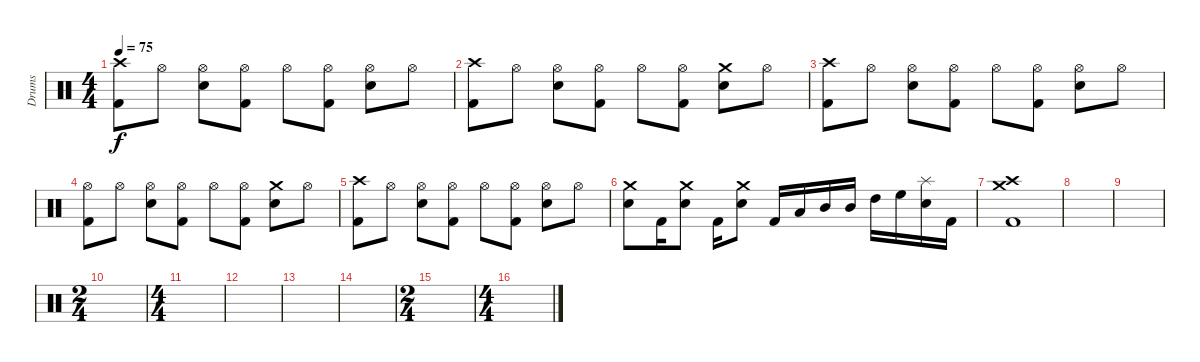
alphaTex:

\track ("Drums" "Drums") {instrument percussion}
\staff {score}
\articulation defaults
\ts (4 4)
\tempo 75
\clef neutral
\ks c
("Crash high (hit)" "Kick (hit) 2").8{dy f} "Hi-Hat (open)".8 ("Hi-Hat (open)" "Electric Snare (hit)").8 ("Hi-Hat (open)" "Kick (hit) 2").8 "Hi-Hat (open)".8 ("Hi-Hat (open)" "Kick (hit) 2").8 ("Hi-Hat (open)" "Electric Snare (hit)").8 "Hi-Hat (open)".8 |
("Crash high (hit)" "Kick (hit) 2").8 "Hi-Hat (open)".8 ("Hi-Hat (open)" "Electric Snare (hit)").8 ("Hi-Hat (open)" "Kick (hit) 2").8 "Hi-Hat (open)".8 ("Hi-Hat (open)" "Kick (hit) 2").8 ("Crash medium (hit)" "Electric Snare (hit)").8 "Hi-Hat (open)".8 |
("Crash high (hit)" "Kick (hit) 2").8 "Hi-Hat (open)".8 ("Hi-Hat (open)" "Electric Snare (hit)").8 ("Hi-Hat (open)" "Kick (hit) 2").8 "Hi-Hat (open)".8 ("Hi-Hat (open)" "Kick (hit) 2").8 ("Hi-Hat (open)" "Electric Snare (hit)").8 "Hi-Hat (open)".8 |
("Hi-Hat (open)" "Kick (hit) 2").8 "Hi-Hat (open)".8 ("Hi-Hat (open)" "Electric Snare (hit)").8 ("Hi-Hat (open)" "Kick (hit) 2").8 "Hi-Hat (open)".8 ("Hi-Hat (open)" "Kick (hit) 2").8 ("Crash medium (hit)" "Electric Snare (hit)").8 "Hi-Hat (open)".8 |
("Crash high (hit)" "Kick (hit) 2").8 "Hi-Hat (open)".8 ("Hi-Hat (open)" "Electric Snare (hit)").8 ("Hi-Hat (open)" "Kick (hit) 2").8 "Hi-Hat (open)".8 ("Hi-Hat (open)" "Kick (hit) 2").8 ("Hi-Hat (open)" "Electric Snare (hit)").8 "Hi-Hat (open)".8 |
("Crash medium (hit)" "Electric Snare (hit)").8 "Kick (hit) 2".16 ("Crash medium (hit)" "Electric Snare (hit)").8 "Kick (hit) 2".16 ("Crash medium (hit)" "Electric Snare (hit)").8 "Kick (hit) 2".16 "Low Tom (hit)".16 "Mid Tom (hit)".16 "Mid Tom (hit)".16 "High Tom (hit)".16 "High Floor Tom (hit)".16 ("Splash (hit)" "Electric Snare (hit)").16 "Kick (hit) 2".16 |
("Crash high (hit)" "Crash medium (hit)" "Kick (hit) 2").1 |
|
|
\ts (2 4)
|
\ts (4 4)
|
|
|
|
\ts (2 4)
|
\ts (4 4)
